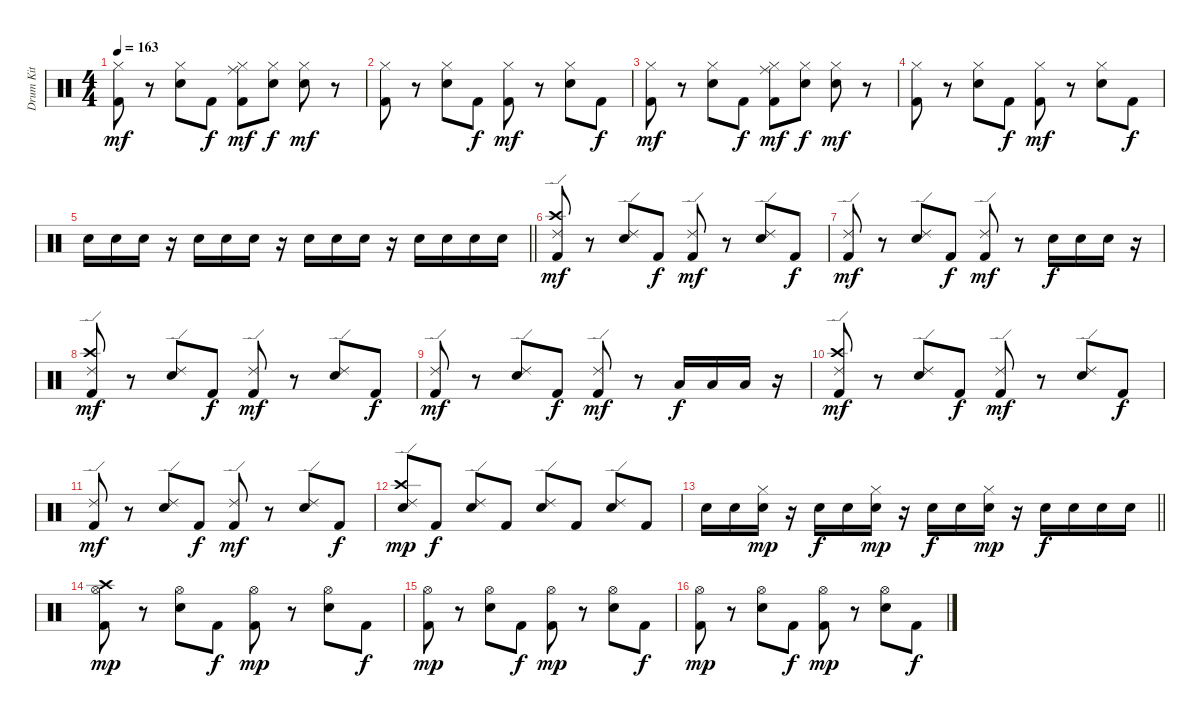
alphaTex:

\track ("Drum Kit" "Drum Kit") {instrument percussion}
\staff {score}
\articulation defaults
\ts (4 4)
\tempo 163
\clef neutral
\ks c
("Hi-Hat (closed)" "Kick (hit) 2").8{dy mf} r.8 ("Hi-Hat (closed)" "Electric Snare (hit)").8 "Kick (hit) 2".8{dy f} ("Ride (middle)" "Hi-Hat (closed)" "Kick (hit) 2").8{dy mf} ("Hi-Hat (closed)" "Electric Snare (hit)").8{dy f} ("Hi-Hat (closed)" "Electric Snare (hit)").8{dy mf} r.8 |
("Hi-Hat (closed)" "Kick (hit) 2").8 r.8 ("Hi-Hat (closed)" "Electric Snare (hit)").8 "Kick (hit) 2".8{dy f} ("Hi-Hat (closed)" "Kick (hit) 2").8{dy mf} r.8 ("Hi-Hat (closed)" "Electric Snare (hit)").8 "Kick (hit) 2".8{dy f} |
("Hi-Hat (closed)" "Kick (hit) 2").8{dy mf} r.8 ("Hi-Hat (closed)" "Electric Snare (hit)").8 "Kick (hit) 2".8{dy f} ("Ride (middle)" "Hi-Hat (closed)" "Kick (hit) 2").8{dy mf} ("Hi-Hat (closed)" "Electric Snare (hit)").8{dy f} ("Hi-Hat (closed)" "Electric Snare (hit)").8{dy mf} r.8 |
("Hi-Hat (closed)" "Kick (hit) 2").8 r.8 ("Hi-Hat (closed)" "Electric Snare (hit)").8 "Kick (hit) 2".8{dy f} ("Hi-Hat (closed)" "Kick (hit) 2").8{dy mf} r.8 ("Hi-Hat (closed)" "Electric Snare (hit)").8 "Kick (hit) 2".8{dy f} |
\barLineRight lightlight "Electric Snare (hit)".16 "Electric Snare (hit)".16 "Electric Snare (hit)".16
r.16 "Electric Snare (hit)".16 "Electric Snare (hit)".16 "Electric Snare (hit)".16 r.16 "Electric Snare (hit)".16 "Electric Snare (hit)".16 "Electric Snare (hit)".16 r.16 "Electric Snare (hit)".16 "Electric Snare (hit)".16 "Electric Snare (hit)".16 "Electric Snare (hit)".16 |
("Crash high (hit)" "Ride (edge) 2" "Kick (hit) 2").8{dy mf} r.8 ("Ride (edge) 2" "Electric Snare (hit)").8 "Kick (hit) 2".8{dy f} ("Ride (edge) 2" "Kick (hit) 2").8{dy mf} r.8 ("Ride (edge) 2" "Electric Snare (hit)").8 "Kick (hit) 2".8{dy f} |
("Ride (edge) 2" "Kick (hit) 2").8{dy mf} r.8 ("Ride (edge) 2" "Electric Snare (hit)").8 "Kick (hit) 2".8{dy f} ("Ride (edge) 2" "Kick (hit) 2").8{dy mf} r.8 "Electric Snare (hit)".16{dy f} "Electric Snare (hit)".16 "Electric Snare (hit)".16 r.16 |
("Crash high (hit)" "Ride (edge) 2" "Kick (hit) 2").8{dy mf} r.8 ("Ride (edge) 2" "Electric Snare (hit)").8 "Kick (hit) 2".8{dy f} ("Ride (edge) 2" "Kick (hit) 2").8{dy mf} r.8 ("Ride (edge) 2" "Electric Snare (hit)").8 "Kick (hit) 2".8{dy f} |
("Ride (edge) 2" "Kick (hit) 2").8{dy mf} r.8 ("Ride (edge) 2" "Electric Snare (hit)").8 "Kick (hit) 2".8{dy f} ("Ride (edge) 2" "Kick (hit) 2").8{dy mf} r.8 "Low Floor Tom (hit)".16{dy f} "Low Floor Tom (hit)".16 "Low Floor Tom (hit)".16 r.16 |
("Crash high (hit)" "Ride (edge) 2" "Kick (hit) 2").8{dy mf} r.8 ("Ride (edge) 2" "Electric Snare (hit)").8 "Kick (hit) 2".8{dy f} ("Ride (edge) 2" "Kick (hit) 2").8{dy mf} r.8 ("Ride (edge) 2" "Electric Snare (hit)").8 "Kick (hit) 2".8{dy f} |
("Ride (edge) 2" "Kick (hit) 2").8{dy mf} r.8 ("Ride (edge) 2" "Electric Snare (hit)").8 "Kick (hit) 2".8{dy f} ("Ride (edge) 2" "Kick (hit) 2").8{dy mf} r.8 ("Ride (edge) 2" "Electric Snare (hit)").8 "Kick (hit) 2".8{dy f} |
("Crash high (hit)" "Ride (edge) 2" "Electric Snare (hit)").8{dy mp} "Kick (hit) 2".8{dy f} ("Ride (edge) 2" "Electric Snare (hit)").8 "Kick (hit) 2".8 ("Ride (edge) 2" "Electric Snare (hit)").8 "Kick (hit) 2".8 ("Ride (edge) 2" "Electric Snare (hit)").8 "Kick (hit) 2".8 |
\barLineRight lightlight "Electric Snare (hit)".16 "Electric Snare (hit)".16
("Hi-Hat (closed)" "Electric Snare (hit)").16{dy mp} r.16 "Electric Snare (hit)".16{dy f} "Electric Snare (hit)".16 ("Hi-Hat (closed)" "Electric Snare (hit)").16{dy mp} r.16 "Electric Snare (hit)".16{dy f} "Electric Snare (hit)".16 ("Hi-Hat (closed)" "Electric Snare (hit)").16{dy mp} r.16 "Electric Snare (hit)".16{dy f} "Electric Snare (hit)".16 "Electric Snare (hit)".16 "Electric Snare (hit)".16 |
("Crash high (hit)" "Hi-Hat (open)" "Kick (hit) 2").8{dy mp} r.8 ("Hi-Hat (open)" "Electric Snare (hit)").8 "Kick (hit) 2".8{dy f} ("Hi-Hat (open)" "Kick (hit) 2").8{dy mp} r.8 ("Hi-Hat (open)" "Electric Snare (hit)").8 "Kick (hit) 2".8{dy f} |
("Hi-Hat (open)" "Kick (hit) 2").8{dy mp} r.8 ("Hi-Hat (open)" "Electric Snare (hit)").8 "Kick (hit) 2".8{dy f} ("Hi-Hat (open)" "Kick (hit) 2").8{dy mp} r.8 ("Hi-Hat (open)" "Electric Snare (hit)").8 "Kick (hit) 2".8{dy f} |
("Hi-Hat (open)" "Kick (hit) 2").8{dy mp} r.8 ("Hi-Hat (open)" "Electric Snare (hit)").8 "Kick (hit) 2".8{dy f} ("Hi-Hat (open)" "Kick (hit) 2").8{dy mp} r.8 ("Hi-Hat (open)" "Electric Snare (hit)").8 "Kick (hit) 2".8{dy f}
